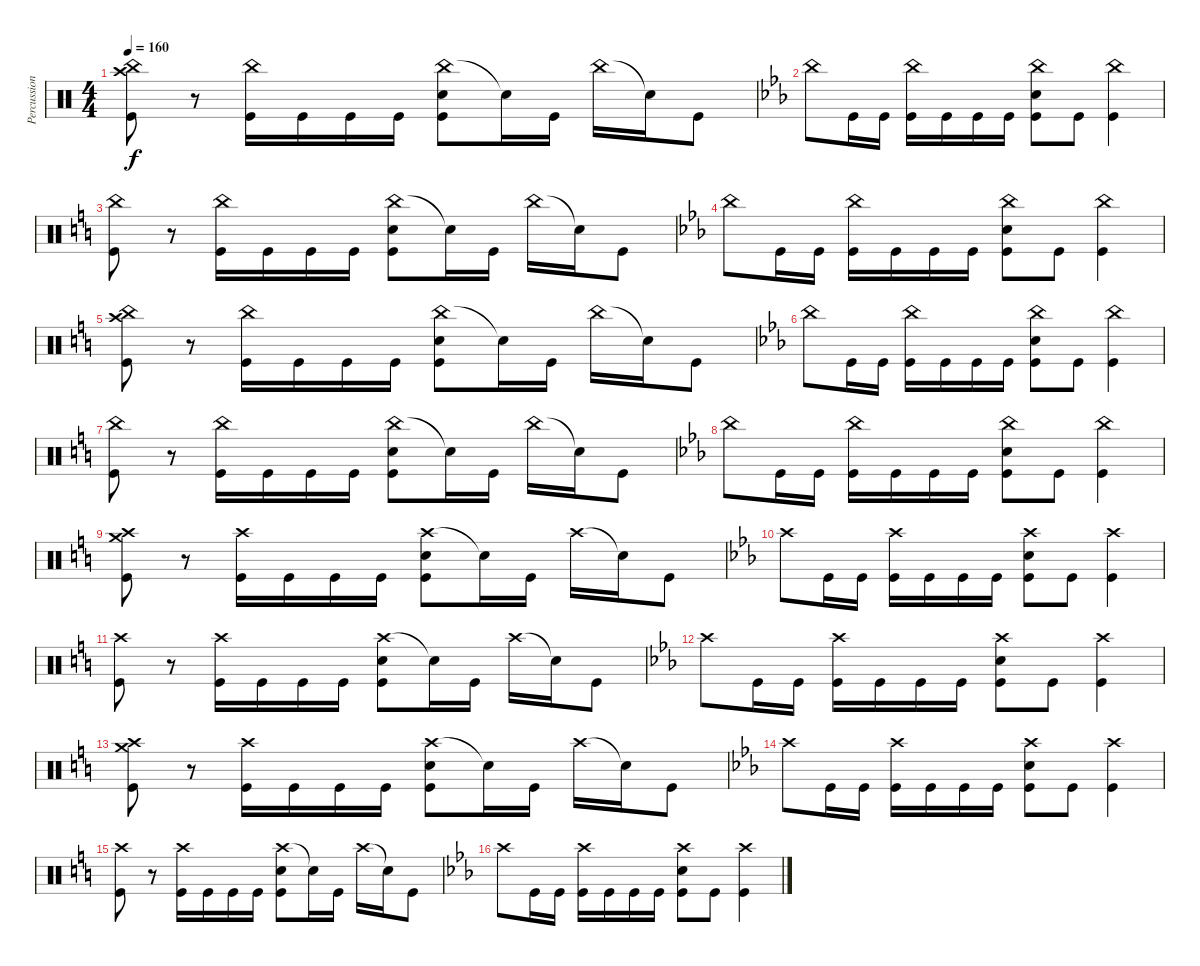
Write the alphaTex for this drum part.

\track ("Percussion" "Percussion") {instrument percussion}
\staff {score}
\articulation defaults
\ts (4 4)
\tempo 160
\clef neutral
\ks c
("Crash high (hit)" "China (hit)" "Kick (hit)").8{dy f} r.8 ("China (hit)" "Kick (hit)").16 "Kick (hit)".16 "Kick (hit)".16 "Kick (hit)".16 ("China (hit)" "Electric Snare (hit)" "Kick (hit)").8 "Snare (hit)"{t}.16 "Kick (hit)".16 "China (hit)".16 "Snare (hit)"{t}.16 "Kick (hit)".8 |
\ks cminor "China (hit)".8 "Kick (hit)".16 "Kick (hit)".16
("China (hit)" "Kick (hit)").16 "Kick (hit)".16 "Kick (hit)".16 "Kick (hit)".16 ("China (hit)" "Electric Snare (hit)" "Kick (hit)").8 "Kick (hit)".8 ("China (hit)" "Kick (hit)").4 |
\ks c
("China (hit)" "Kick (hit)").8 r.8 ("China (hit)" "Kick (hit)").16 "Kick (hit)".16 "Kick (hit)".16 "Kick (hit)".16 ("China (hit)" "Electric Snare (hit)" "Kick (hit)").8 "Snare (hit)"{t}.16 "Kick (hit)".16 "China (hit)".16 "Snare (hit)"{t}.16 "Kick (hit)".8 |
\ks cminor "China (hit)".8 "Kick (hit)".16 "Kick (hit)".16
("China (hit)" "Kick (hit)").16 "Kick (hit)".16 "Kick (hit)".16 "Kick (hit)".16 ("China (hit)" "Electric Snare (hit)" "Kick (hit)").8 "Kick (hit)".8 ("China (hit)" "Kick (hit)").4 |
\ks c
("Crash high (hit)" "China (hit)" "Kick (hit)").8 r.8 ("China (hit)" "Kick (hit)").16 "Kick (hit)".16 "Kick (hit)".16 "Kick (hit)".16 ("China (hit)" "Electric Snare (hit)" "Kick (hit)").8 "Snare (hit)"{t}.16 "Kick (hit)".16 "China (hit)".16 "Snare (hit)"{t}.16 "Kick (hit)".8 |
\ks cminor "China (hit)".8 "Kick (hit)".16 "Kick (hit)".16
("China (hit)" "Kick (hit)").16 "Kick (hit)".16 "Kick (hit)".16 "Kick (hit)".16 ("China (hit)" "Electric Snare (hit)" "Kick (hit)").8 "Kick (hit)".8 ("China (hit)" "Kick (hit)").4 |
\ks c
("China (hit)" "Kick (hit)").8 r.8 ("China (hit)" "Kick (hit)").16 "Kick (hit)".16 "Kick (hit)".16 "Kick (hit)".16 ("China (hit)" "Electric Snare (hit)" "Kick (hit)").8 "Snare (hit)"{t}.16 "Kick (hit)".16 "China (hit)".16 "Snare (hit)"{t}.16 "Kick (hit)".8 |
\ks cminor "China (hit)".8 "Kick (hit)".16 "Kick (hit)".16
("China (hit)" "Kick (hit)").16 "Kick (hit)".16 "Kick (hit)".16 "Kick (hit)".16 ("China (hit)" "Electric Snare (hit)" "Kick (hit)").8 "Kick (hit)".8 ("China (hit)" "Kick (hit)").4 |
\ks c
("Crash medium (hit)" "Crash high (hit)" "Kick (hit)").8 r.8 ("Crash high (hit)" "Kick (hit)").16 "Kick (hit)".16 "Kick (hit)".16 "Kick (hit)".16 ("Crash high (hit)" "Electric Snare (hit)" "Kick (hit)").8 "Snare (hit)"{t}.16 "Kick (hit)".16 "Crash high (hit)".16 "Snare (hit)"{t}.16 "Kick (hit)".8 |
\ks cminor "Crash high (hit)".8 "Kick (hit)".16 "Kick (hit)".16
("Crash high (hit)" "Kick (hit)").16 "Kick (hit)".16 "Kick (hit)".16 "Kick (hit)".16 ("Crash high (hit)" "Electric Snare (hit)" "Kick (hit)").8 "Kick (hit)".8 ("Crash high (hit)" "Kick (hit)").4 |
\ks c
("Crash high (hit)" "Kick (hit)").8 r.8 ("Crash high (hit)" "Kick (hit)").16 "Kick (hit)".16 "Kick (hit)".16 "Kick (hit)".16 ("Crash high (hit)" "Electric Snare (hit)" "Kick (hit)").8 "Snare (hit)"{t}.16 "Kick (hit)".16 "Crash high (hit)".16 "Snare (hit)"{t}.16 "Kick (hit)".8 |
\ks cminor "Crash high (hit)".8 "Kick (hit)".16 "Kick (hit)".16
("Crash high (hit)" "Kick (hit)").16 "Kick (hit)".16 "Kick (hit)".16 "Kick (hit)".16 ("Crash high (hit)" "Electric Snare (hit)" "Kick (hit)").8 "Kick (hit)".8 ("Crash high (hit)" "Kick (hit)").4 |
\ks c
("Crash medium (hit)" "Crash high (hit)" "Kick (hit)").8 r.8 ("Crash high (hit)" "Kick (hit)").16 "Kick (hit)".16 "Kick (hit)".16 "Kick (hit)".16 ("Crash high (hit)" "Electric Snare (hit)" "Kick (hit)").8 "Snare (hit)"{t}.16 "Kick (hit)".16 "Crash high (hit)".16 "Snare (hit)"{t}.16 "Kick (hit)".8 |
\ks cminor "Crash high (hit)".8 "Kick (hit)".16 "Kick (hit)".16
("Crash high (hit)" "Kick (hit)").16 "Kick (hit)".16 "Kick (hit)".16 "Kick (hit)".16 ("Crash high (hit)" "Electric Snare (hit)" "Kick (hit)").8 "Kick (hit)".8 ("Crash high (hit)" "Kick (hit)").4 |
\ks c
("Crash high (hit)" "Kick (hit)").8 r.8 ("Crash high (hit)" "Kick (hit)").16 "Kick (hit)".16 "Kick (hit)".16 "Kick (hit)".16 ("Crash high (hit)" "Electric Snare (hit)" "Kick (hit)").8 "Snare (hit)"{t}.16 "Kick (hit)".16 "Crash high (hit)".16 "Snare (hit)"{t}.16 "Kick (hit)".8 |
\ks cminor "Crash high (hit)".8 "Kick (hit)".16 "Kick (hit)".16
("Crash high (hit)" "Kick (hit)").16 "Kick (hit)".16 "Kick (hit)".16 "Kick (hit)".16 ("Crash high (hit)" "Electric Snare (hit)" "Kick (hit)").8 "Kick (hit)".8 ("Crash high (hit)" "Kick (hit)").4
